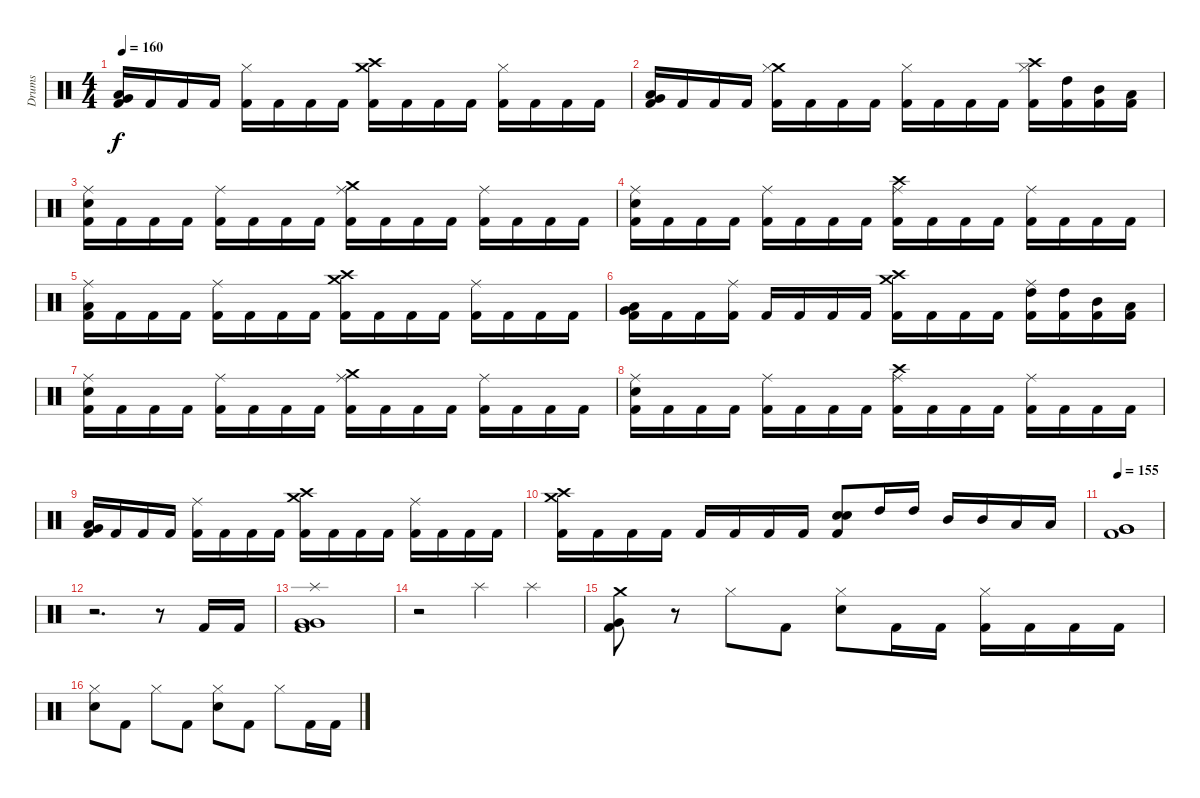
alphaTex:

\track ("Drums" "Drums") {instrument percussion}
\staff {score}
\articulation defaults
\ts (4 4)
\tempo 160
\clef neutral
\ks c
("Kick (hit) 2" "Very Low Tom (hit)" "Low Tom (hit)").16{dy f} "Kick (hit) 2".16 "Kick (hit) 2".16 "Kick (hit) 2".16 ("Kick (hit) 2" "Hi-Hat (closed)").16 "Kick (hit) 2".16 "Kick (hit) 2".16 "Kick (hit) 2".16 ("Kick (hit) 2" "Crash high (hit)" "Crash medium (hit)").16 "Kick (hit) 2".16 "Kick (hit) 2".16 "Kick (hit) 2".16 ("Kick (hit) 2" "Hi-Hat (closed)").16 "Kick (hit) 2".16 "Kick (hit) 2".16 "Kick (hit) 2".16 |
("Kick (hit) 2" "Very Low Tom (hit)" "Low Tom (hit)").16 "Kick (hit) 2".16 "Kick (hit) 2".16 "Kick (hit) 2".16 ("Kick (hit) 2" "Crash medium (hit)" "Hi-Hat (closed)").16 "Kick (hit) 2".16 "Kick (hit) 2".16 "Kick (hit) 2".16 ("Kick (hit) 2" "Hi-Hat (closed)").16 "Kick (hit) 2".16 "Kick (hit) 2".16 "Kick (hit) 2".16 ("Kick (hit) 2" "Crash high (hit)" "Hi-Hat (closed)").16 ("Kick (hit) 2" "High Tom (hit)").16 ("Kick (hit) 2" "Mid Tom (hit)").16 ("Kick (hit) 2" "Low Tom (hit)").16 |
("Kick (hit) 2" "Snare (hit) 2" "Ride (middle)").16 "Kick (hit) 2".16 "Kick (hit) 2".16 "Kick (hit) 2".16 ("Kick (hit) 2" "Ride (middle)").16 "Kick (hit) 2".16 "Kick (hit) 2".16 "Kick (hit) 2".16 ("Kick (hit) 2" "Crash medium (hit)" "Ride (middle)").16 "Kick (hit) 2".16 "Kick (hit) 2".16 "Kick (hit) 2".16 ("Kick (hit) 2" "Ride (middle)").16 "Kick (hit) 2".16 "Kick (hit) 2".16 "Kick (hit) 2".16 |
("Kick (hit) 2" "Snare (hit) 2" "Ride (middle)").16 "Kick (hit) 2".16 "Kick (hit) 2".16 "Kick (hit) 2".16 ("Kick (hit) 2" "Ride (middle)").16 "Kick (hit) 2".16 "Kick (hit) 2".16 "Kick (hit) 2".16 ("Kick (hit) 2" "Crash high (hit)" "Ride (middle)").16 "Kick (hit) 2".16 "Kick (hit) 2".16 "Kick (hit) 2".16 ("Kick (hit) 2" "Ride (middle)").16 "Kick (hit) 2".16 "Kick (hit) 2".16 "Kick (hit) 2".16 |
("Kick (hit) 2" "Ride (middle)" "Low Tom (hit)").16 "Kick (hit) 2".16 "Kick (hit) 2".16 "Kick (hit) 2".16 ("Kick (hit) 2" "Ride (middle)").16 "Kick (hit) 2".16 "Kick (hit) 2".16 "Kick (hit) 2".16 ("Kick (hit) 2" "Crash high (hit)" "Crash medium (hit)").16 "Kick (hit) 2".16 "Kick (hit) 2".16 "Kick (hit) 2".16 ("Kick (hit) 2" "Ride (middle)").16 "Kick (hit) 2".16 "Kick (hit) 2".16 "Kick (hit) 2".16 |
("Kick (hit) 2" "Very Low Tom (hit)" "Low Tom (hit)").16 "Kick (hit) 2".16 "Kick (hit) 2".16 ("Kick (hit) 2" "Ride (middle)").16 "Kick (hit) 2".16 "Kick (hit) 2".16 "Kick (hit) 2".16 "Kick (hit) 2".16 ("Kick (hit) 2" "Crash medium (hit)" "Crash high (hit)").16 "Kick (hit) 2".16 "Kick (hit) 2".16 "Kick (hit) 2".16 ("Kick (hit) 2" "High Tom (hit)" "Ride (middle)").16 ("Kick (hit) 2" "High Tom (hit)").16 ("Kick (hit) 2" "Mid Tom (hit)").16 ("Kick (hit) 2" "Low Tom (hit)").16 |
("Kick (hit) 2" "Snare (hit) 2" "Ride (middle)").16 "Kick (hit) 2".16 "Kick (hit) 2".16 "Kick (hit) 2".16 ("Kick (hit) 2" "Ride (middle)").16 "Kick (hit) 2".16 "Kick (hit) 2".16 "Kick (hit) 2".16 ("Kick (hit) 2" "Crash medium (hit)" "Ride (middle)").16 "Kick (hit) 2".16 "Kick (hit) 2".16 "Kick (hit) 2".16 ("Kick (hit) 2" "Ride (middle)").16 "Kick (hit) 2".16 "Kick (hit) 2".16 "Kick (hit) 2".16 |
("Kick (hit) 2" "Snare (hit) 2" "Ride (middle)").16 "Kick (hit) 2".16 "Kick (hit) 2".16 "Kick (hit) 2".16 ("Kick (hit) 2" "Ride (middle)").16 "Kick (hit) 2".16 "Kick (hit) 2".16 "Kick (hit) 2".16 ("Kick (hit) 2" "Crash high (hit)" "Ride (middle)").16 "Kick (hit) 2".16 "Kick (hit) 2".16 "Kick (hit) 2".16 ("Kick (hit) 2" "Ride (middle)").16 "Kick (hit) 2".16 "Kick (hit) 2".16 "Kick (hit) 2".16 |
("Kick (hit) 2" "Very Low Tom (hit)" "Low Tom (hit)").16 "Kick (hit) 2".16 "Kick (hit) 2".16 "Kick (hit) 2".16 ("Kick (hit) 2" "Ride (middle)").16 "Kick (hit) 2".16 "Kick (hit) 2".16 "Kick (hit) 2".16 ("Kick (hit) 2" "Crash high (hit)" "Crash medium (hit)").16 "Kick (hit) 2".16 "Kick (hit) 2".16 "Kick (hit) 2".16 ("Kick (hit) 2" "Ride (middle)").16 "Kick (hit) 2".16 "Kick (hit) 2".16 "Kick (hit) 2".16 |
("Kick (hit) 2" "Crash high (hit)" "Crash medium (hit)").16 "Kick (hit) 2".16 "Kick (hit) 2".16 "Kick (hit) 2".16 "Kick (hit) 2".16 "Kick (hit) 2".16 "Kick (hit) 2".16 "Kick (hit) 2".16 ("Kick (hit) 2" "Snare (hit) 2" "Snare (hit) 2").8 "High Tom (hit)".16 "High Tom (hit)".16 "Mid Tom (hit)".16 "Mid Tom (hit)".16 "Low Tom (hit)".16 "Low Tom (hit)".16 |
\tempo 155
("Kick (hit) 2" "Very Low Tom (hit)" "Very Low Tom (hit)").1 |
r.2{d} r.8 "Kick (hit) 2".16 "Kick (hit) 2".16 |
("Kick (hit) 2" "Very Low Tom (hit)" "Very Low Tom (hit)" "Splash (hit)").1 |
r.2 "Splash (hit)".4 "Splash (hit)".4 |
("Kick (hit) 2" "Very Low Tom (hit)" "Crash medium (hit)").8 r.8 "Hi-Hat (closed)".8 "Kick (hit) 2".8 ("Snare (hit) 2" "Hi-Hat (closed)").8 "Kick (hit) 2".16 "Kick (hit) 2".16 ("Kick (hit) 2" "Hi-Hat (closed)").16 "Kick (hit) 2".16 "Kick (hit) 2".16 "Kick (hit) 2".16 |
("Snare (hit) 2" "Hi-Hat (closed)").8 "Kick (hit) 2".8 "Hi-Hat (closed)".8 "Kick (hit) 2".8 ("Snare (hit) 2" "Hi-Hat (closed)").8 "Kick (hit) 2".8 "Hi-Hat (closed)".8 "Kick (hit) 2".16 "Kick (hit) 2".16
